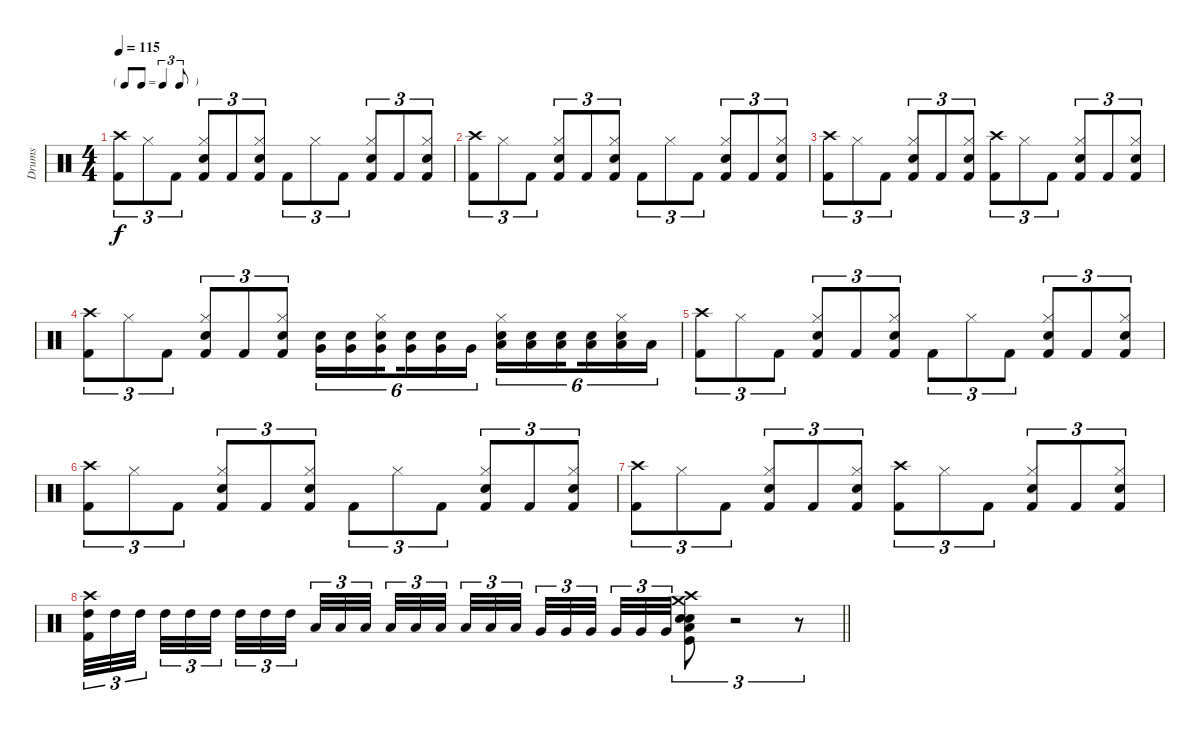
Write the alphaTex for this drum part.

\track ("Drums" "Drums") {instrument percussion}
\staff {score}
\articulation defaults
\ts (4 4)
\tf triplet8th
\tempo 115
\clef neutral
\ks c
("Crash high (hit)" "Kick (hit) 2").8{tu (3 2) dy f} "Hi-Hat (closed)".8{tu (3 2)} "Kick (hit) 2".8{tu (3 2)} ("Hi-Hat (closed)" "Snare (hit) 2" "Kick (hit) 2").8{tu (3 2)} "Kick (hit) 2".8{tu (3 2)} ("Hi-Hat (closed)" "Snare (hit) 2" "Kick (hit) 2").8{tu (3 2)} "Kick (hit) 2".8{tu (3 2)} "Hi-Hat (closed)".8{tu (3 2)} "Kick (hit) 2".8{tu (3 2)} ("Hi-Hat (closed)" "Snare (hit) 2" "Kick (hit) 2").8{tu (3 2)} "Kick (hit) 2".8{tu (3 2)} ("Hi-Hat (closed)" "Snare (hit) 2" "Kick (hit) 2").8{tu (3 2)} |
("Crash high (hit)" "Kick (hit) 2").8{tu (3 2)} "Hi-Hat (closed)".8{tu (3 2)} "Kick (hit) 2".8{tu (3 2)} ("Hi-Hat (closed)" "Snare (hit) 2" "Kick (hit) 2").8{tu (3 2)} "Kick (hit) 2".8{tu (3 2)} ("Hi-Hat (closed)" "Snare (hit) 2" "Kick (hit) 2").8{tu (3 2)} "Kick (hit) 2".8{tu (3 2)} "Hi-Hat (closed)".8{tu (3 2)} "Kick (hit) 2".8{tu (3 2)} ("Hi-Hat (closed)" "Snare (hit) 2" "Kick (hit) 2").8{tu (3 2)} "Kick (hit) 2".8{tu (3 2)} ("Hi-Hat (closed)" "Snare (hit) 2" "Kick (hit) 2").8{tu (3 2)} |
("Crash high (hit)" "Kick (hit) 2").8{tu (3 2)} "Hi-Hat (closed)".8{tu (3 2)} "Kick (hit) 2".8{tu (3 2)} ("Hi-Hat (closed)" "Snare (hit) 2" "Kick (hit) 2").8{tu (3 2)} "Kick (hit) 2".8{tu (3 2)} ("Hi-Hat (closed)" "Snare (hit) 2" "Kick (hit) 2").8{tu (3 2)} ("Crash high (hit)" "Kick (hit) 2").8{tu (3 2)} "Hi-Hat (closed)".8{tu (3 2)} "Kick (hit) 2".8{tu (3 2)} ("Hi-Hat (closed)" "Snare (hit) 2" "Kick (hit) 2").8{tu (3 2)} "Kick (hit) 2".8{tu (3 2)} ("Hi-Hat (closed)" "Snare (hit) 2" "Kick (hit) 2").8{tu (3 2)} |
("Crash high (hit)" "Kick (hit) 2").8{tu (3 2)} "Hi-Hat (closed)".8{tu (3 2)} "Kick (hit) 2".8{tu (3 2)} ("Hi-Hat (closed)" "Snare (hit) 2" "Kick (hit) 2").8{tu (3 2)} "Kick (hit) 2".8{tu (3 2)} ("Hi-Hat (closed)" "Snare (hit) 2" "Kick (hit) 2").8{tu (3 2)} ("Very Low Tom (hit)" "Electric Snare (hit)").16{tu (6 4)} ("Very Low Tom (hit)" "Electric Snare (hit)").16{tu (6 4)} ("Hi-Hat (closed)" "Very Low Tom (hit)" "Electric Snare (hit)").16{tu (6 4) beam splitsecondary} ("Very Low Tom (hit)" "Electric Snare (hit)").16{tu (6 4)} ("Very Low Tom (hit)" "Electric Snare (hit)").16{tu (6 4)} "Very Low Tom (hit)".16{tu (6 4)} ("Hi-Hat (closed)" "Low Floor Tom (hit)" "Electric Snare (hit)").16{tu (6 4)} ("Low Floor Tom (hit)" "Electric Snare (hit)").16{tu (6 4)} ("Low Floor Tom (hit)" "Electric Snare (hit)").16{tu (6 4) beam splitsecondary} ("Low Floor Tom (hit)" "Electric Snare (hit)").16{tu (6 4)} ("Hi-Hat (closed)" "Low Floor Tom (hit)" "Electric Snare (hit)").16{tu (6 4)} "Low Floor Tom (hit)".16{tu (6 4)} |
("Crash high (hit)" "Kick (hit) 2").8{tu (3 2)} "Hi-Hat (closed)".8{tu (3 2)} "Kick (hit) 2".8{tu (3 2)} ("Hi-Hat (closed)" "Snare (hit) 2" "Kick (hit) 2").8{tu (3 2)} "Kick (hit) 2".8{tu (3 2)} ("Hi-Hat (closed)" "Snare (hit) 2" "Kick (hit) 2").8{tu (3 2)} "Kick (hit) 2".8{tu (3 2)} "Hi-Hat (closed)".8{tu (3 2)} "Kick (hit) 2".8{tu (3 2)} ("Hi-Hat (closed)" "Snare (hit) 2" "Kick (hit) 2").8{tu (3 2)} "Kick (hit) 2".8{tu (3 2)} ("Hi-Hat (closed)" "Snare (hit) 2" "Kick (hit) 2").8{tu (3 2)} |
("Crash high (hit)" "Kick (hit) 2").8{tu (3 2)} "Hi-Hat (closed)".8{tu (3 2)} "Kick (hit) 2".8{tu (3 2)} ("Hi-Hat (closed)" "Snare (hit) 2" "Kick (hit) 2").8{tu (3 2)} "Kick (hit) 2".8{tu (3 2)} ("Hi-Hat (closed)" "Snare (hit) 2" "Kick (hit) 2").8{tu (3 2)} "Kick (hit) 2".8{tu (3 2)} "Hi-Hat (closed)".8{tu (3 2)} "Kick (hit) 2".8{tu (3 2)} ("Hi-Hat (closed)" "Snare (hit) 2" "Kick (hit) 2").8{tu (3 2)} "Kick (hit) 2".8{tu (3 2)} ("Hi-Hat (closed)" "Snare (hit) 2" "Kick (hit) 2").8{tu (3 2)} |
("Crash high (hit)" "Kick (hit) 2").8{tu (3 2)} "Hi-Hat (closed)".8{tu (3 2)} "Kick (hit) 2".8{tu (3 2)} ("Hi-Hat (closed)" "Snare (hit) 2" "Kick (hit) 2").8{tu (3 2)} "Kick (hit) 2".8{tu (3 2)} ("Hi-Hat (closed)" "Snare (hit) 2" "Kick (hit) 2").8{tu (3 2)} ("Crash high (hit)" "Kick (hit) 2").8{tu (3 2)} "Hi-Hat (closed)".8{tu (3 2)} "Kick (hit) 2".8{tu (3 2)} ("Hi-Hat (closed)" "Snare (hit) 2" "Kick (hit) 2").8{tu (3 2)} "Kick (hit) 2".8{tu (3 2)} ("Hi-Hat (closed)" "Snare (hit) 2" "Kick (hit) 2").8{tu (3 2)} |
\barLineRight lightlight
("Crash high (hit)" "High Tom (hit)" "Kick (hit) 2").32{tu (3 2)} "High Tom (hit)".32{tu (3 2)} "High Tom (hit)".32{tu (3 2) beam splitsecondary} "High Tom (hit)".32{tu (3 2)} "High Tom (hit)".32{tu (3 2)} "High Tom (hit)".32{tu (3 2) beam splitsecondary} "High Tom (hit)".32{tu (3 2)} "High Tom (hit)".32{tu (3 2)} "High Tom (hit)".32{tu (3 2) beam splitsecondary} "Low Tom (hit)".32{tu (3 2)} "Low Tom (hit)".32{tu (3 2)} "Low Tom (hit)".32{tu (3 2)} "Low Tom (hit)".32{tu (3 2)} "Low Tom (hit)".32{tu (3 2)} "Low Tom (hit)".32{tu (3 2) beam splitsecondary} "Low Tom (hit)".32{tu (3 2)} "Low Tom (hit)".32{tu (3 2)} "Low Tom (hit)".32{tu (3 2) beam splitsecondary} "Very Low Tom (hit)".32{tu (3 2)} "Very Low Tom (hit)".32{tu (3 2)} "Very Low Tom (hit)".32{tu (3 2) beam splitsecondary} "Very Low Tom (hit)".32{tu (3 2)} "Very Low Tom (hit)".32{tu (3 2)} "Very Low Tom (hit)".32{tu (3 2)} ("Low Floor Tom (hit)" "Crash medium (hit)" "Crash high (hit)" "Electric Snare (hit)" "Snare (hit) 2" "Kick (hit)").8{tu (3 2)} r.2{tu (3 2)} r.8{tu (3 2)}
